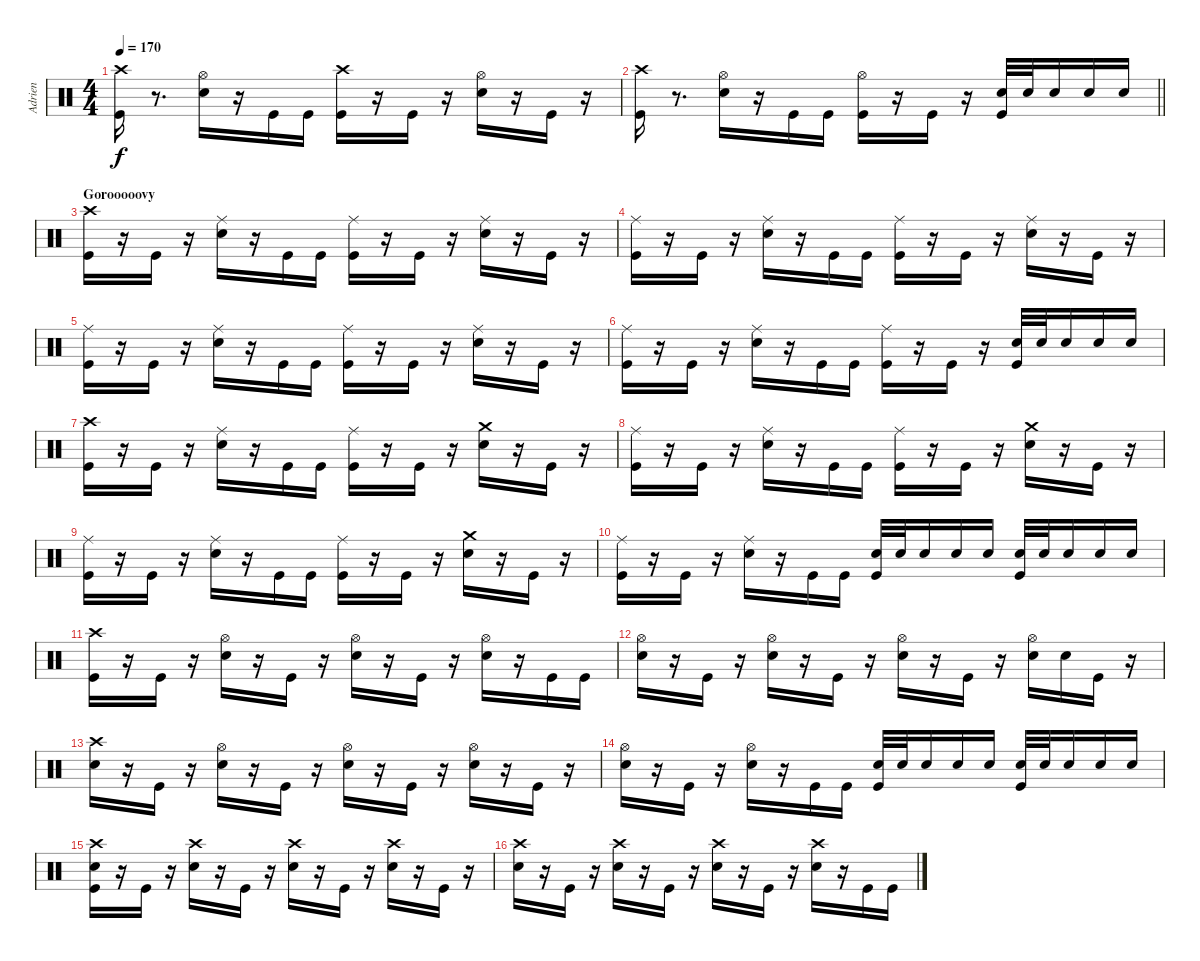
\track ("Adrien" "Adrien") {instrument percussion}
\staff {score}
\articulation defaults
\ts (4 4)
\tempo 170
\clef neutral
\ks c
("Crash high (hit)" "Kick (hit)").16{dy f} r.8{d} ("Hi-Hat (open)" "Electric Snare (hit)").16 r.16 "Kick (hit)".16 "Kick (hit)".16 ("Crash high (hit)" "Kick (hit)").16 r.16 "Kick (hit)".16 r.16 ("Hi-Hat (open)" "Electric Snare (hit)").16 r.16 "Kick (hit)".16 r.16 |
\barLineRight lightlight
("Crash high (hit)" "Kick (hit)").16 r.8{d} ("Hi-Hat (open)" "Electric Snare (hit)").16 r.16 "Kick (hit)".16 "Kick (hit)".16 ("Hi-Hat (open)" "Kick (hit)").16 r.16 "Kick (hit)".16 r.16 ("Kick (hit)" "Electric Snare (hit)").32 "Electric Snare (hit)".32 "Electric Snare (hit)".16 "Electric Snare (hit)".16 "Electric Snare (hit)".16 |
\section ("" "Gorooooovy")
("Crash high (hit)" "Kick (hit)").16 r.16 "Kick (hit)".16 r.16 ("Ride (middle)" "Electric Snare (hit)").16 r.16 "Kick (hit)".16 "Kick (hit)".16 ("Ride (middle)" "Kick (hit)").16 r.16 "Kick (hit)".16 r.16 ("Ride (middle)" "Electric Snare (hit)").16 r.16 "Kick (hit)".16 r.16 |
("Ride (middle)" "Kick (hit)").16 r.16 "Kick (hit)".16 r.16 ("Ride (middle)" "Electric Snare (hit)").16 r.16 "Kick (hit)".16 "Kick (hit)".16 ("Ride (middle)" "Kick (hit)").16 r.16 "Kick (hit)".16 r.16 ("Ride (middle)" "Electric Snare (hit)").16 r.16 "Kick (hit)".16 r.16 |
("Ride (middle)" "Kick (hit)").16 r.16 "Kick (hit)".16 r.16 ("Ride (middle)" "Electric Snare (hit)").16 r.16 "Kick (hit)".16 "Kick (hit)".16 ("Ride (middle)" "Kick (hit)").16 r.16 "Kick (hit)".16 r.16 ("Ride (middle)" "Electric Snare (hit)").16 r.16 "Kick (hit)".16 r.16 |
("Ride (middle)" "Kick (hit)").16 r.16 "Kick (hit)".16 r.16 ("Ride (middle)" "Electric Snare (hit)").16 r.16 "Kick (hit)".16 "Kick (hit)".16 ("Ride (middle)" "Kick (hit)").16 r.16 "Kick (hit)".16 r.16 ("Kick (hit)" "Electric Snare (hit)").32 "Electric Snare (hit)".32 "Electric Snare (hit)".16 "Electric Snare (hit)".16 "Electric Snare (hit)".16 |
("Crash high (hit)" "Kick (hit)").16 r.16 "Kick (hit)".16 r.16 ("Ride (middle)" "Electric Snare (hit)").16 r.16 "Kick (hit)".16 "Kick (hit)".16 ("Ride (middle)" "Kick (hit)").16 r.16 "Kick (hit)".16 r.16 ("Crash medium (hit)" "Electric Snare (hit)").16 r.16 "Kick (hit)".16 r.16 |
("Ride (middle)" "Kick (hit)").16 r.16 "Kick (hit)".16 r.16 ("Ride (middle)" "Electric Snare (hit)").16 r.16 "Kick (hit)".16 "Kick (hit)".16 ("Ride (middle)" "Kick (hit)").16 r.16 "Kick (hit)".16 r.16 ("Crash medium (hit)" "Electric Snare (hit)").16 r.16 "Kick (hit)".16 r.16 |
("Ride (middle)" "Kick (hit)").16 r.16 "Kick (hit)".16 r.16 ("Ride (middle)" "Electric Snare (hit)").16 r.16 "Kick (hit)".16 "Kick (hit)".16 ("Ride (middle)" "Kick (hit)").16 r.16 "Kick (hit)".16 r.16 ("Crash medium (hit)" "Electric Snare (hit)").16 r.16 "Kick (hit)".16 r.16 |
("Ride (middle)" "Kick (hit)").16 r.16 "Kick (hit)".16 r.16 ("Ride (middle)" "Electric Snare (hit)").16 r.16 "Kick (hit)".16 "Kick (hit)".16 ("Electric Snare (hit)" "Kick (hit)").32 "Electric Snare (hit)".32 "Electric Snare (hit)".16 "Electric Snare (hit)".16 "Electric Snare (hit)".16 ("Kick (hit)" "Electric Snare (hit)").32 "Electric Snare (hit)".32 "Electric Snare (hit)".16 "Electric Snare (hit)".16 "Electric Snare (hit)".16 |
("Crash high (hit)" "Kick (hit)").16 r.16 "Kick (hit)".16 r.16 ("Hi-Hat (open)" "Electric Snare (hit)").16 r.16 "Kick (hit)".16 r.16 ("Electric Snare (hit)" "Hi-Hat (open)").16 r.16 "Kick (hit)".16 r.16 ("Hi-Hat (open)" "Electric Snare (hit)").16 r.16 "Kick (hit)".16 "Kick (hit)".16 |
("Electric Snare (hit)" "Hi-Hat (open)").16 r.16 "Kick (hit)".16 r.16 ("Hi-Hat (open)" "Electric Snare (hit)").16 r.16 "Kick (hit)".16 r.16 ("Electric Snare (hit)" "Hi-Hat (open)").16 r.16 "Kick (hit)".16 r.16 ("Hi-Hat (open)" "Electric Snare (hit)").16 "Electric Snare (hit)".16 "Kick (hit)".16 r.16 |
("Crash high (hit)" "Electric Snare (hit)").16 r.16 "Kick (hit)".16 r.16 ("Hi-Hat (open)" "Electric Snare (hit)").16 r.16 "Kick (hit)".16 r.16 ("Electric Snare (hit)" "Hi-Hat (open)").16 r.16 "Kick (hit)".16 r.16 ("Hi-Hat (open)" "Electric Snare (hit)").16 r.16 "Kick (hit)".16 r.16 |
("Electric Snare (hit)" "Hi-Hat (open)").16 r.16 "Kick (hit)".16 r.16 ("Hi-Hat (open)" "Electric Snare (hit)").16 r.16 "Kick (hit)".16 "Kick (hit)".16 ("Electric Snare (hit)" "Kick (hit)").32 "Electric Snare (hit)".32 "Electric Snare (hit)".16 "Electric Snare (hit)".16 "Electric Snare (hit)".16 ("Kick (hit)" "Electric Snare (hit)").32 "Electric Snare (hit)".32 "Electric Snare (hit)".16 "Electric Snare (hit)".16 "Electric Snare (hit)".16 |
("Electric Snare (hit)" "Crash high (hit)" "Kick (hit)").16 r.16 "Kick (hit)".16 r.16 ("Crash high (hit)" "Electric Snare (hit)").16 r.16 "Kick (hit)".16 r.16 ("Electric Snare (hit)" "Crash high (hit)").16 r.16 "Kick (hit)".16 r.16 ("Crash high (hit)" "Electric Snare (hit)").16 r.16 "Kick (hit)".16 r.16 |
("Crash high (hit)" "Electric Snare (hit)").16 r.16 "Kick (hit)".16 r.16 ("Crash high (hit)" "Electric Snare (hit)").16 r.16 "Kick (hit)".16 r.16 ("Electric Snare (hit)" "Crash high (hit)").16 r.16 "Kick (hit)".16 r.16 ("Crash high (hit)" "Electric Snare (hit)").16 r.16 "Kick (hit)".16 "Kick (hit)".16
